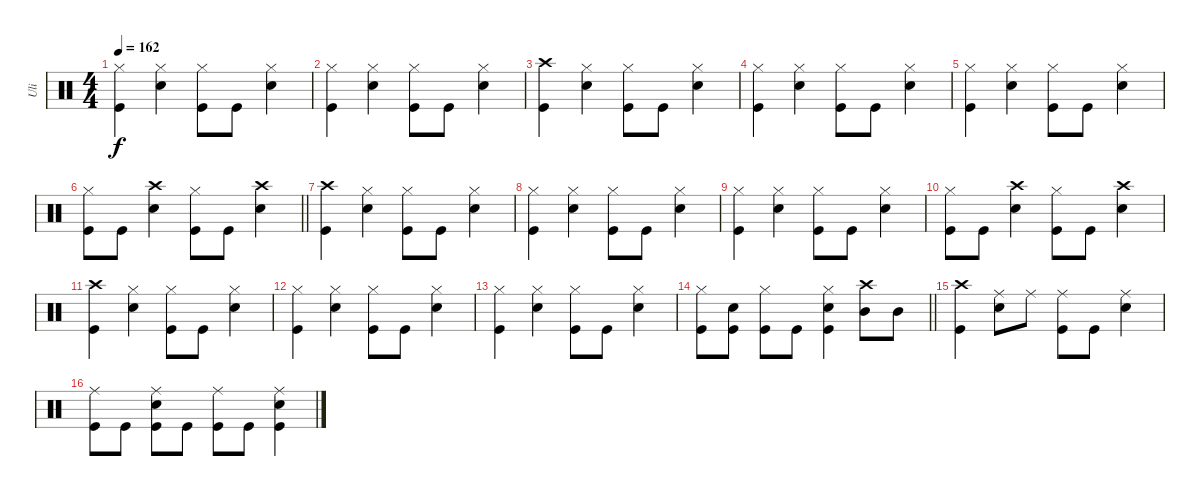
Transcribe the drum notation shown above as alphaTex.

\track ("Uli" "Uli") {instrument percussion}
\staff {score}
\articulation defaults
\ts (4 4)
\tempo 162
\clef neutral
\ks aminor
("Hi-Hat (closed)" "Kick (hit)").4{dy f} ("Hi-Hat (closed)" "Snare (hit) 2").4 ("Hi-Hat (closed)" "Kick (hit)").8 "Kick (hit)".8 ("Hi-Hat (closed)" "Snare (hit) 2").4 |
("Hi-Hat (closed)" "Kick (hit)").4 ("Hi-Hat (closed)" "Snare (hit) 2").4 ("Hi-Hat (closed)" "Kick (hit)").8 "Kick (hit)".8 ("Hi-Hat (closed)" "Snare (hit) 2").4 |
("Crash high (hit)" "Kick (hit)").4 ("Hi-Hat (closed)" "Snare (hit) 2").4 ("Hi-Hat (closed)" "Kick (hit)").8 "Kick (hit)".8 ("Hi-Hat (closed)" "Snare (hit) 2").4 |
("Hi-Hat (closed)" "Kick (hit)").4 ("Hi-Hat (closed)" "Snare (hit) 2").4 ("Hi-Hat (closed)" "Kick (hit)").8 "Kick (hit)".8 ("Hi-Hat (closed)" "Snare (hit) 2").4 |
("Hi-Hat (closed)" "Kick (hit)").4 ("Hi-Hat (closed)" "Snare (hit) 2").4 ("Hi-Hat (closed)" "Kick (hit)").8 "Kick (hit)".8 ("Hi-Hat (closed)" "Snare (hit) 2").4 |
\barLineRight lightlight
("Hi-Hat (closed)" "Kick (hit)").8 "Kick (hit)".8 ("Crash high (hit)" "Snare (hit) 2").4 ("Hi-Hat (closed)" "Kick (hit)").8 "Kick (hit)".8 ("Crash high (hit)" "Snare (hit) 2").4 |
("Crash high (hit)" "Kick (hit)").4 ("Hi-Hat (closed)" "Snare (hit) 2").4 ("Hi-Hat (closed)" "Kick (hit)").8 "Kick (hit)".8 ("Hi-Hat (closed)" "Snare (hit) 2").4 |
("Hi-Hat (closed)" "Kick (hit)").4 ("Hi-Hat (closed)" "Snare (hit) 2").4 ("Hi-Hat (closed)" "Kick (hit)").8 "Kick (hit)".8 ("Hi-Hat (closed)" "Snare (hit) 2").4 |
("Hi-Hat (closed)" "Kick (hit)").4 ("Hi-Hat (closed)" "Snare (hit) 2").4 ("Hi-Hat (closed)" "Kick (hit)").8 "Kick (hit)".8 ("Hi-Hat (closed)" "Snare (hit) 2").4 |
("Hi-Hat (closed)" "Kick (hit)").8 "Kick (hit)".8 ("Crash high (hit)" "Snare (hit) 2").4 ("Hi-Hat (closed)" "Kick (hit)").8 "Kick (hit)".8 ("Crash high (hit)" "Snare (hit) 2").4 |
("Crash high (hit)" "Kick (hit)").4 ("Hi-Hat (closed)" "Snare (hit) 2").4 ("Hi-Hat (closed)" "Kick (hit)").8 "Kick (hit)".8 ("Hi-Hat (closed)" "Snare (hit) 2").4 |
("Hi-Hat (closed)" "Kick (hit)").4 ("Hi-Hat (closed)" "Snare (hit) 2").4 ("Hi-Hat (closed)" "Kick (hit)").8 "Kick (hit)".8 ("Hi-Hat (closed)" "Snare (hit) 2").4 |
("Hi-Hat (closed)" "Kick (hit)").4 ("Hi-Hat (closed)" "Snare (hit) 2").4 ("Hi-Hat (closed)" "Kick (hit)").8 "Kick (hit)".8 ("Hi-Hat (closed)" "Snare (hit) 2").4 |
\barLineRight lightlight
("Hi-Hat (closed)" "Kick (hit)").8 ("Snare (hit) 2" "Kick (hit)").8 ("Hi-Hat (closed)" "Kick (hit)").8 "Kick (hit)".8 ("Hi-Hat (closed)" "Snare (hit) 2" "Kick (hit)").4 ("Crash high (hit)" "Mid Tom (hit)").8 "Mid Tom (hit)".8 |
("Crash high (hit)" "Kick (hit)").4 ("Ride (middle)" "Snare (hit) 2").8 "Ride (middle)".8 ("Ride (middle)" "Kick (hit)").8 "Kick (hit)".8 ("Ride (middle)" "Snare (hit) 2").4 |
("Ride (middle)" "Kick (hit)").8 "Kick (hit)".8 ("Ride (middle)" "Snare (hit) 2" "Kick (hit)").8 "Kick (hit)".8 ("Ride (middle)" "Kick (hit)").8 "Kick (hit)".8 ("Ride (middle)" "Snare (hit) 2" "Kick (hit)").4
